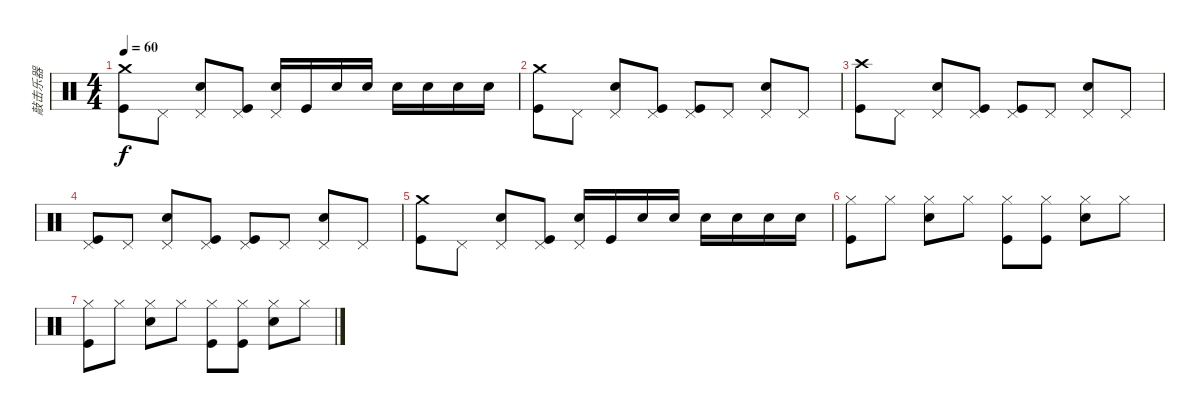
\track ("敲击乐器" "敲击乐器") {instrument percussion}
\staff {score}
\articulation defaults
\ts (4 4)
\tempo 60
\clef neutral
\ks c
("Kick (hit)" "Crash medium (hit)").8{dy f} "Pedal Hi-Hat (hit)".8 ("Electric Snare (hit)" "Pedal Hi-Hat (hit)").8 ("Kick (hit)" "Pedal Hi-Hat (hit)").8 ("Electric Snare (hit)" "Pedal Hi-Hat (hit)").16 "Kick (hit)".16 "Electric Snare (hit)".16 "Electric Snare (hit)".16 "Electric Snare (hit)".16 "Electric Snare (hit)".16 "Electric Snare (hit)".16 "Electric Snare (hit)".16 |
("Kick (hit)" "Crash medium (hit)").8 "Pedal Hi-Hat (hit)".8 ("Electric Snare (hit)" "Pedal Hi-Hat (hit)").8 ("Kick (hit)" "Pedal Hi-Hat (hit)").8 ("Kick (hit)" "Pedal Hi-Hat (hit)").8 "Pedal Hi-Hat (hit)".8 ("Electric Snare (hit)" "Pedal Hi-Hat (hit)").8 "Pedal Hi-Hat (hit)".8 |
("Kick (hit)" "Crash high (hit)").8 "Pedal Hi-Hat (hit)".8 ("Electric Snare (hit)" "Pedal Hi-Hat (hit)").8 ("Kick (hit)" "Pedal Hi-Hat (hit)").8 ("Kick (hit)" "Pedal Hi-Hat (hit)").8 "Pedal Hi-Hat (hit)".8 ("Electric Snare (hit)" "Pedal Hi-Hat (hit)").8 "Pedal Hi-Hat (hit)".8 |
("Kick (hit)" "Pedal Hi-Hat (hit)").8 "Pedal Hi-Hat (hit)".8 ("Electric Snare (hit)" "Pedal Hi-Hat (hit)").8 ("Kick (hit)" "Pedal Hi-Hat (hit)").8 ("Kick (hit)" "Pedal Hi-Hat (hit)").8 "Pedal Hi-Hat (hit)".8 ("Electric Snare (hit)" "Pedal Hi-Hat (hit)").8 "Pedal Hi-Hat (hit)".8 |
("Kick (hit)" "Crash medium (hit)").8 "Pedal Hi-Hat (hit)".8 ("Electric Snare (hit)" "Pedal Hi-Hat (hit)").8 ("Kick (hit)" "Pedal Hi-Hat (hit)").8 ("Electric Snare (hit)" "Pedal Hi-Hat (hit)").16 "Kick (hit)".16 "Electric Snare (hit)".16 "Electric Snare (hit)".16 "Electric Snare (hit)".16 "Electric Snare (hit)".16 "Electric Snare (hit)".16 "Electric Snare (hit)".16 |
("Kick (hit)" "Hi-Hat (closed)").8 "Hi-Hat (closed)".8 ("Electric Snare (hit)" "Hi-Hat (closed)").8 "Hi-Hat (closed)".8 ("Kick (hit)" "Hi-Hat (closed)").8 ("Kick (hit)" "Hi-Hat (closed)").8 ("Electric Snare (hit)" "Hi-Hat (closed)").8 "Hi-Hat (closed)".8 |
("Kick (hit)" "Hi-Hat (closed)").8 "Hi-Hat (closed)".8 ("Electric Snare (hit)" "Hi-Hat (closed)").8 "Hi-Hat (closed)".8 ("Kick (hit)" "Hi-Hat (closed)").8 ("Kick (hit)" "Hi-Hat (closed)").8 ("Electric Snare (hit)" "Hi-Hat (closed)").8 "Hi-Hat (closed)".8
